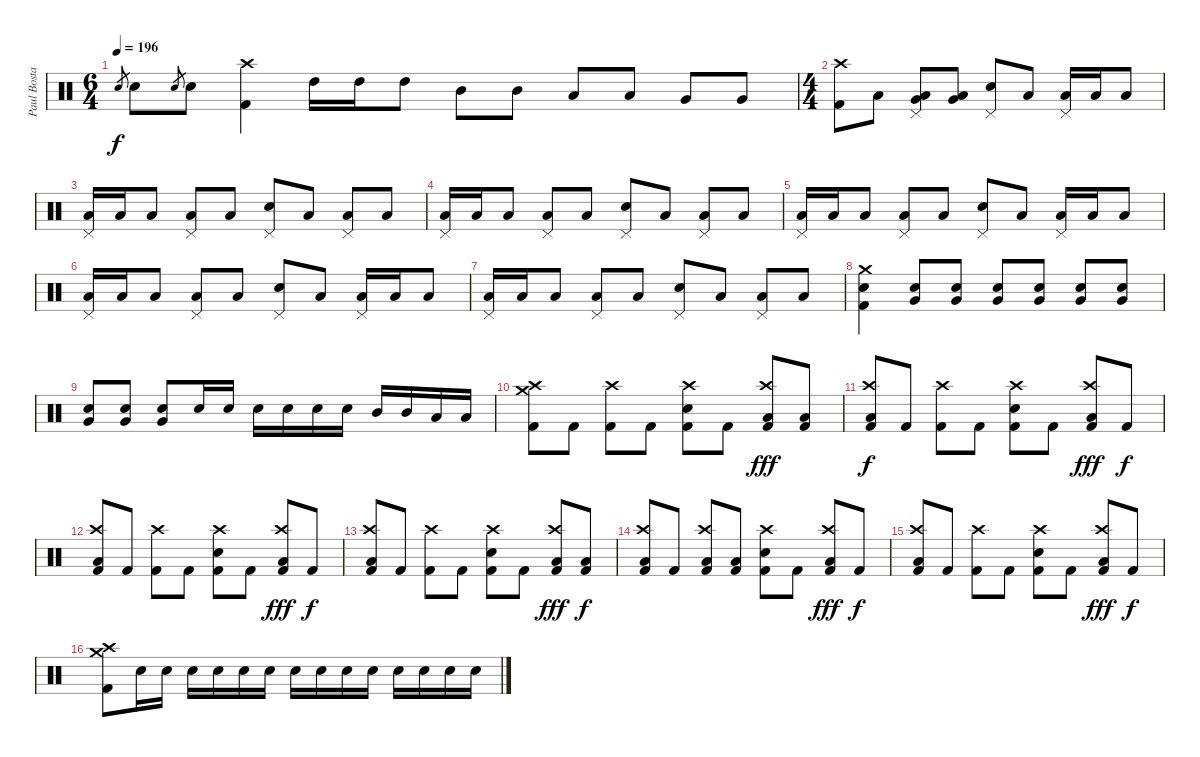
\track ("Paul Bostaph" "Paul Bosta") {instrument percussion}
\staff {score}
\articulation defaults
\ts (6 4)
\tempo 196
\clef neutral
\ks c "Electric Snare (hit)".8{gr dy f} "Electric Snare (hit)".8 "Electric Snare (hit)".8{gr} "Electric Snare (hit)".8
("Kick (hit) 2" "Crash high (hit)").4 "High Tom (hit)".16 "High Tom (hit)".16 "High Tom (hit)".8 "Mid Tom (hit)".8 "Mid Tom (hit)".8 "Low Tom (hit)".8 "Low Tom (hit)".8 "Very Low Tom (hit)".8 "Very Low Tom (hit)".8 |
\ts (4 4)
("Crash high (hit)" "Kick (hit) 2").8 "Low Tom (hit)".8 ("Pedal Hi-Hat (hit)" "Very Low Tom (hit)" "Low Tom (hit)").8 ("Very Low Tom (hit)" "Low Tom (hit)").8 ("Pedal Hi-Hat (hit)" "Electric Snare (hit)").8 "Low Tom (hit)".8 ("Pedal Hi-Hat (hit)" "Low Tom (hit)").16 "Low Tom (hit)".16 "Low Tom (hit)".8 |
("Pedal Hi-Hat (hit)" "Low Tom (hit)").16 "Low Tom (hit)".16 "Low Tom (hit)".8 ("Pedal Hi-Hat (hit)" "Low Tom (hit)").8 "Low Tom (hit)".8 ("Pedal Hi-Hat (hit)" "Electric Snare (hit)").8 "Low Tom (hit)".8 ("Pedal Hi-Hat (hit)" "Low Tom (hit)").8 "Low Tom (hit)".8 |
("Pedal Hi-Hat (hit)" "Low Tom (hit)").16 "Low Tom (hit)".16 "Low Tom (hit)".8 ("Pedal Hi-Hat (hit)" "Low Tom (hit)").8 "Low Tom (hit)".8 ("Pedal Hi-Hat (hit)" "Electric Snare (hit)").8 "Low Tom (hit)".8 ("Pedal Hi-Hat (hit)" "Low Tom (hit)").8 "Low Tom (hit)".8 |
("Pedal Hi-Hat (hit)" "Low Tom (hit)").16 "Low Tom (hit)".16 "Low Tom (hit)".8 ("Pedal Hi-Hat (hit)" "Low Tom (hit)").8 "Low Tom (hit)".8 ("Pedal Hi-Hat (hit)" "Electric Snare (hit)").8 "Low Tom (hit)".8 ("Pedal Hi-Hat (hit)" "Low Tom (hit)").16 "Low Tom (hit)".16 "Low Tom (hit)".8 |
("Pedal Hi-Hat (hit)" "Low Tom (hit)").16 "Low Tom (hit)".16 "Low Tom (hit)".8 ("Pedal Hi-Hat (hit)" "Low Tom (hit)").8 "Low Tom (hit)".8 ("Pedal Hi-Hat (hit)" "Electric Snare (hit)").8 "Low Tom (hit)".8 ("Pedal Hi-Hat (hit)" "Low Tom (hit)").16 "Low Tom (hit)".16 "Low Tom (hit)".8 |
("Pedal Hi-Hat (hit)" "Low Tom (hit)").16 "Low Tom (hit)".16 "Low Tom (hit)".8 ("Pedal Hi-Hat (hit)" "Low Tom (hit)").8 "Low Tom (hit)".8 ("Pedal Hi-Hat (hit)" "Electric Snare (hit)").8 "Low Tom (hit)".8 ("Pedal Hi-Hat (hit)" "Low Tom (hit)").8 "Low Tom (hit)".8 |
("Crash medium (hit)" "Kick (hit) 2" "Electric Snare (hit)").4 ("Very Low Tom (hit)" "Electric Snare (hit)").8 ("Very Low Tom (hit)" "Electric Snare (hit)").8 ("Very Low Tom (hit)" "Electric Snare (hit)").8 ("Very Low Tom (hit)" "Electric Snare (hit)").8 ("Very Low Tom (hit)" "Electric Snare (hit)").8 ("Very Low Tom (hit)" "Electric Snare (hit)").8 |
("Very Low Tom (hit)" "Electric Snare (hit)").8 ("Very Low Tom (hit)" "Electric Snare (hit)").8 ("Very Low Tom (hit)" "Electric Snare (hit)").8 "Electric Snare (hit)".16 "Electric Snare (hit)".16 "Electric Snare (hit)".16 "Electric Snare (hit)".16 "Electric Snare (hit)".16 "Electric Snare (hit)".16 "Mid Tom (hit)".16 "Mid Tom (hit)".16 "Low Tom (hit)".16 "Low Tom (hit)".16 |
("Crash medium (hit)" "Crash high (hit)" "Kick (hit) 2").8 "Kick (hit) 2".8 ("Crash high (hit)" "Kick (hit) 2").8 "Kick (hit) 2".8 ("Crash high (hit)" "Kick (hit) 2" "Electric Snare (hit)").8 "Kick (hit) 2".8 ("Crash high (hit)" "Kick (hit) 2" "Low Tom (hit)").8{dy fff} ("Kick (hit) 2" "Low Tom (hit)").8 |
("Crash high (hit)" "Kick (hit) 2" "Low Tom (hit)").8{dy f} "Kick (hit) 2".8 ("Crash high (hit)" "Kick (hit) 2").8 "Kick (hit) 2".8 ("Crash high (hit)" "Kick (hit) 2" "Electric Snare (hit)").8 "Kick (hit) 2".8 ("Crash high (hit)" "Kick (hit) 2" "Low Tom (hit)").8{dy fff} "Kick (hit) 2".8{dy f} |
("Crash high (hit)" "Kick (hit) 2" "Low Tom (hit)").8 "Kick (hit) 2".8 ("Crash high (hit)" "Kick (hit) 2").8 "Kick (hit) 2".8 ("Crash high (hit)" "Kick (hit) 2" "Electric Snare (hit)").8 "Kick (hit) 2".8 ("Crash high (hit)" "Kick (hit) 2" "Low Tom (hit)").8{dy fff} "Kick (hit) 2".8{dy f} |
("Crash high (hit)" "Kick (hit) 2" "Low Tom (hit)").8 "Kick (hit) 2".8 ("Crash high (hit)" "Kick (hit) 2").8 "Kick (hit) 2".8 ("Crash high (hit)" "Kick (hit) 2" "Electric Snare (hit)").8 "Kick (hit) 2".8 ("Crash high (hit)" "Kick (hit) 2" "Low Tom (hit)").8{dy fff} ("Kick (hit) 2" "Low Tom (hit)").8{dy f} |
("Crash high (hit)" "Kick (hit) 2" "Low Tom (hit)").8 "Kick (hit) 2".8 ("Crash high (hit)" "Kick (hit) 2" "Low Tom (hit)").8 ("Kick (hit) 2" "Low Tom (hit)").8 ("Crash high (hit)" "Kick (hit) 2" "Electric Snare (hit)").8 "Kick (hit) 2".8 ("Crash high (hit)" "Kick (hit) 2" "Low Tom (hit)").8{dy fff} "Kick (hit) 2".8{dy f} |
("Crash high (hit)" "Kick (hit) 2" "Low Tom (hit)").8 "Kick (hit) 2".8 ("Crash high (hit)" "Kick (hit) 2").8 "Kick (hit) 2".8 ("Crash high (hit)" "Kick (hit) 2" "Electric Snare (hit)").8 "Kick (hit) 2".8 ("Crash high (hit)" "Kick (hit) 2" "Low Tom (hit)").8{dy fff} "Kick (hit) 2".8{dy f} |
("Crash medium (hit)" "Crash high (hit)" "Kick (hit) 2").8 "Electric Snare (hit)".16 "Electric Snare (hit)".16 "Electric Snare (hit)".16 "Electric Snare (hit)".16 "Electric Snare (hit)".16 "Electric Snare (hit)".16 "Electric Snare (hit)".16 "Electric Snare (hit)".16 "Electric Snare (hit)".16 "Electric Snare (hit)".16 "Electric Snare (hit)".16 "Electric Snare (hit)".16 "Electric Snare (hit)".16 "Electric Snare (hit)".16
